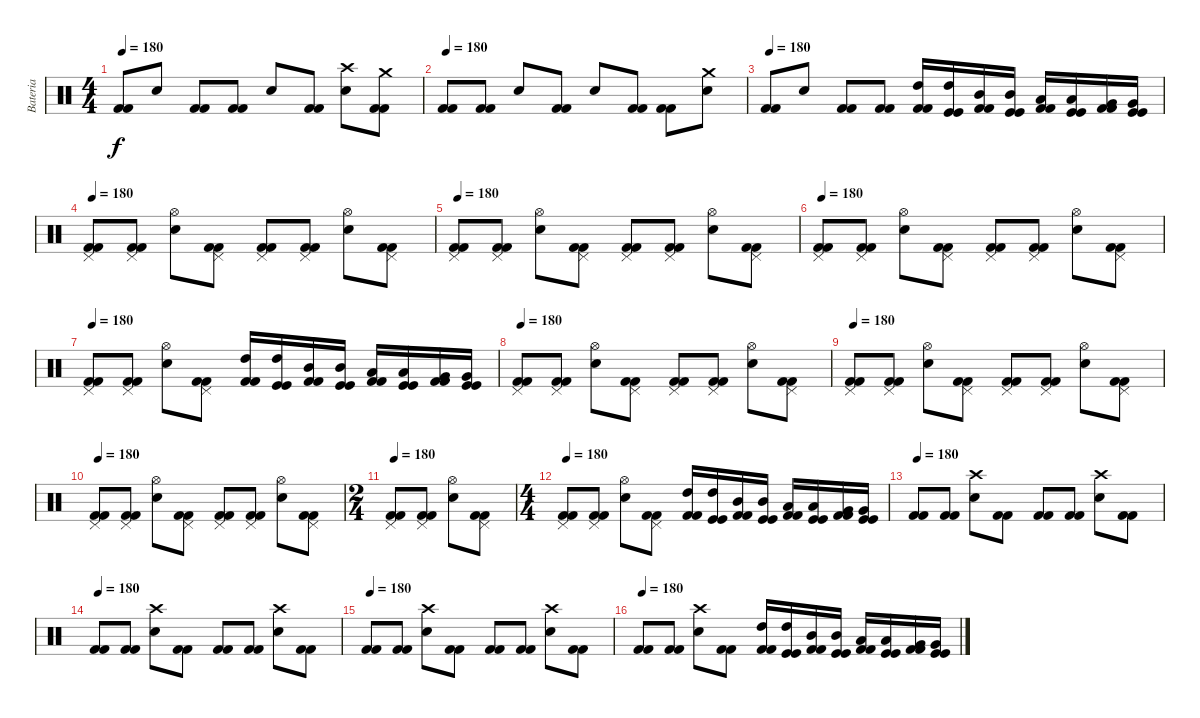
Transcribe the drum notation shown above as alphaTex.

\track ("Bateria" "Bateria") {instrument percussion}
\staff {score}
\articulation defaults
\ts (4 4)
\tempo 180
\clef neutral
\ks c
("Kick (hit) 2" "Kick (hit) 2").8{dy f} "Snare (hit) 2".8 ("Kick (hit) 2" "Kick (hit) 2").8 ("Kick (hit) 2" "Kick (hit) 2").8 "Snare (hit) 2".8 ("Kick (hit) 2" "Kick (hit) 2").8 ("Snare (hit) 2" "Crash high (hit)").8 ("Kick (hit) 2" "Kick (hit) 2" "Crash medium (hit)").8 |
\tempo 180
("Kick (hit) 2" "Kick (hit) 2").8 ("Kick (hit) 2" "Kick (hit) 2").8 "Snare (hit) 2".8 ("Kick (hit) 2" "Kick (hit) 2").8 "Snare (hit) 2".8 ("Kick (hit) 2" "Kick (hit) 2").8 ("Kick (hit) 2" "Kick (hit) 2").8 ("Snare (hit) 2" "Crash medium (hit)").8 |
\tempo 180
("Kick (hit) 2" "Kick (hit) 2").8 "Snare (hit) 2".8 ("Kick (hit) 2" "Kick (hit) 2").8 ("Kick (hit) 2" "Kick (hit) 2").8 ("Kick (hit) 2" "Kick (hit) 2" "High Tom (hit)").16 ("Kick (hit)" "Kick (hit)" "High Tom (hit)").16 ("Kick (hit) 2" "Kick (hit) 2" "Mid Tom (hit)").16 ("Kick (hit)" "Kick (hit)" "Mid Tom (hit)").16 ("Kick (hit) 2" "Kick (hit) 2" "Low Tom (hit)").16 ("Kick (hit)" "Kick (hit)" "Low Tom (hit)").16 ("Kick (hit) 2" "Kick (hit) 2" "Very Low Tom (hit)").16 ("Kick (hit)" "Kick (hit)" "Very Low Tom (hit)").16 |
\tempo 180
("Kick (hit) 2" "Kick (hit) 2" "Pedal Hi-Hat (hit)").8 ("Kick (hit) 2" "Kick (hit) 2" "Pedal Hi-Hat (hit)").8 ("Snare (hit) 2" "Hi-Hat (open)").8 ("Kick (hit) 2" "Kick (hit) 2" "Pedal Hi-Hat (hit)").8 ("Kick (hit) 2" "Kick (hit) 2" "Pedal Hi-Hat (hit)").8 ("Kick (hit) 2" "Kick (hit) 2" "Pedal Hi-Hat (hit)").8 ("Snare (hit) 2" "Hi-Hat (open)").8 ("Kick (hit) 2" "Kick (hit) 2" "Pedal Hi-Hat (hit)").8 |
\tempo 180
("Kick (hit) 2" "Kick (hit) 2" "Pedal Hi-Hat (hit)").8 ("Kick (hit) 2" "Kick (hit) 2" "Pedal Hi-Hat (hit)").8 ("Snare (hit) 2" "Hi-Hat (open)").8 ("Kick (hit) 2" "Kick (hit) 2" "Pedal Hi-Hat (hit)").8 ("Kick (hit) 2" "Kick (hit) 2" "Pedal Hi-Hat (hit)").8 ("Kick (hit) 2" "Kick (hit) 2" "Pedal Hi-Hat (hit)").8 ("Snare (hit) 2" "Hi-Hat (open)").8 ("Kick (hit) 2" "Kick (hit) 2" "Pedal Hi-Hat (hit)").8 |
\tempo 180
("Kick (hit) 2" "Kick (hit) 2" "Pedal Hi-Hat (hit)").8 ("Kick (hit) 2" "Kick (hit) 2" "Pedal Hi-Hat (hit)").8 ("Snare (hit) 2" "Hi-Hat (open)").8 ("Kick (hit) 2" "Kick (hit) 2" "Pedal Hi-Hat (hit)").8 ("Kick (hit) 2" "Kick (hit) 2" "Pedal Hi-Hat (hit)").8 ("Kick (hit) 2" "Kick (hit) 2" "Pedal Hi-Hat (hit)").8 ("Snare (hit) 2" "Hi-Hat (open)").8 ("Kick (hit) 2" "Kick (hit) 2" "Pedal Hi-Hat (hit)").8 |
\tempo 180
("Kick (hit) 2" "Kick (hit) 2" "Pedal Hi-Hat (hit)").8 ("Kick (hit) 2" "Kick (hit) 2" "Pedal Hi-Hat (hit)").8 ("Snare (hit) 2" "Hi-Hat (open)").8 ("Kick (hit) 2" "Kick (hit) 2" "Pedal Hi-Hat (hit)").8 ("Kick (hit) 2" "Kick (hit) 2" "High Tom (hit)").16 ("Kick (hit)" "Kick (hit)" "High Tom (hit)").16 ("Kick (hit) 2" "Kick (hit) 2" "Mid Tom (hit)").16 ("Kick (hit)" "Kick (hit)" "Mid Tom (hit)").16 ("Kick (hit) 2" "Kick (hit) 2" "Low Tom (hit)").16 ("Kick (hit)" "Kick (hit)" "Low Tom (hit)").16 ("Kick (hit) 2" "Kick (hit) 2" "Very Low Tom (hit)").16 ("Kick (hit)" "Kick (hit)" "Very Low Tom (hit)").16 |
\tempo 180
("Kick (hit) 2" "Kick (hit) 2" "Pedal Hi-Hat (hit)").8 ("Kick (hit) 2" "Kick (hit) 2" "Pedal Hi-Hat (hit)").8 ("Snare (hit) 2" "Hi-Hat (open)").8 ("Kick (hit) 2" "Kick (hit) 2" "Pedal Hi-Hat (hit)").8 ("Kick (hit) 2" "Kick (hit) 2" "Pedal Hi-Hat (hit)").8 ("Kick (hit) 2" "Kick (hit) 2" "Pedal Hi-Hat (hit)").8 ("Snare (hit) 2" "Hi-Hat (open)").8 ("Kick (hit) 2" "Kick (hit) 2" "Pedal Hi-Hat (hit)").8 |
\tempo 180
("Kick (hit) 2" "Kick (hit) 2" "Pedal Hi-Hat (hit)").8 ("Kick (hit) 2" "Kick (hit) 2" "Pedal Hi-Hat (hit)").8 ("Snare (hit) 2" "Hi-Hat (open)").8 ("Kick (hit) 2" "Kick (hit) 2" "Pedal Hi-Hat (hit)").8 ("Kick (hit) 2" "Kick (hit) 2" "Pedal Hi-Hat (hit)").8 ("Kick (hit) 2" "Kick (hit) 2" "Pedal Hi-Hat (hit)").8 ("Snare (hit) 2" "Hi-Hat (open)").8 ("Kick (hit) 2" "Kick (hit) 2" "Pedal Hi-Hat (hit)").8 |
\tempo 180
("Kick (hit) 2" "Kick (hit) 2" "Pedal Hi-Hat (hit)").8 ("Kick (hit) 2" "Kick (hit) 2" "Pedal Hi-Hat (hit)").8 ("Snare (hit) 2" "Hi-Hat (open)").8 ("Kick (hit) 2" "Kick (hit) 2" "Pedal Hi-Hat (hit)").8 ("Kick (hit) 2" "Kick (hit) 2" "Pedal Hi-Hat (hit)").8 ("Kick (hit) 2" "Kick (hit) 2" "Pedal Hi-Hat (hit)").8 ("Snare (hit) 2" "Hi-Hat (open)").8 ("Kick (hit) 2" "Kick (hit) 2" "Pedal Hi-Hat (hit)").8 |
\ts (2 4)
\tempo 180
("Kick (hit) 2" "Kick (hit) 2" "Pedal Hi-Hat (hit)").8 ("Kick (hit) 2" "Kick (hit) 2" "Pedal Hi-Hat (hit)").8 ("Snare (hit) 2" "Hi-Hat (open)").8 ("Kick (hit) 2" "Kick (hit) 2" "Pedal Hi-Hat (hit)").8 |
\ts (4 4)
\tempo 180
("Kick (hit) 2" "Kick (hit) 2" "Pedal Hi-Hat (hit)").8 ("Kick (hit) 2" "Kick (hit) 2" "Pedal Hi-Hat (hit)").8 ("Snare (hit) 2" "Hi-Hat (open)").8 ("Kick (hit) 2" "Kick (hit) 2" "Pedal Hi-Hat (hit)").8 ("Kick (hit) 2" "Kick (hit) 2" "High Tom (hit)").16 ("Kick (hit)" "Kick (hit)" "High Tom (hit)").16 ("Kick (hit) 2" "Kick (hit) 2" "Mid Tom (hit)").16 ("Kick (hit)" "Kick (hit)" "Mid Tom (hit)").16 ("Kick (hit) 2" "Kick (hit) 2" "Low Tom (hit)").16 ("Kick (hit)" "Kick (hit)" "Low Tom (hit)").16 ("Kick (hit) 2" "Kick (hit) 2" "Very Low Tom (hit)").16 ("Kick (hit)" "Kick (hit)" "Very Low Tom (hit)").16 |
\tempo 180
("Kick (hit) 2" "Kick (hit) 2").8 ("Kick (hit) 2" "Kick (hit) 2").8 ("Snare (hit) 2" "Crash high (hit)").8 ("Kick (hit) 2" "Kick (hit) 2").8 ("Kick (hit) 2" "Kick (hit) 2").8 ("Kick (hit) 2" "Kick (hit) 2").8 ("Snare (hit) 2" "Crash high (hit)").8 ("Kick (hit) 2" "Kick (hit) 2").8 |
\tempo 180
("Kick (hit) 2" "Kick (hit) 2").8 ("Kick (hit) 2" "Kick (hit) 2").8 ("Snare (hit) 2" "Crash high (hit)").8 ("Kick (hit) 2" "Kick (hit) 2").8 ("Kick (hit) 2" "Kick (hit) 2").8 ("Kick (hit) 2" "Kick (hit) 2").8 ("Snare (hit) 2" "Crash high (hit)").8 ("Kick (hit) 2" "Kick (hit) 2").8 |
\tempo 180
("Kick (hit) 2" "Kick (hit) 2").8 ("Kick (hit) 2" "Kick (hit) 2").8 ("Snare (hit) 2" "Crash high (hit)").8 ("Kick (hit) 2" "Kick (hit) 2").8 ("Kick (hit) 2" "Kick (hit) 2").8 ("Kick (hit) 2" "Kick (hit) 2").8 ("Snare (hit) 2" "Crash high (hit)").8 ("Kick (hit) 2" "Kick (hit) 2").8 |
\tempo 180
("Kick (hit) 2" "Kick (hit) 2").8 ("Kick (hit) 2" "Kick (hit) 2").8 ("Snare (hit) 2" "Crash high (hit)").8 ("Kick (hit) 2" "Kick (hit) 2").8 ("Kick (hit) 2" "Kick (hit) 2" "High Tom (hit)").16 ("Kick (hit)" "Kick (hit)" "High Tom (hit)").16 ("Kick (hit) 2" "Kick (hit) 2" "Mid Tom (hit)").16 ("Kick (hit)" "Kick (hit)" "Mid Tom (hit)").16 ("Kick (hit) 2" "Kick (hit) 2" "Low Tom (hit)").16 ("Kick (hit)" "Kick (hit)" "Low Tom (hit)").16 ("Kick (hit) 2" "Kick (hit) 2" "Very Low Tom (hit)").16 ("Kick (hit)" "Kick (hit)" "Very Low Tom (hit)").16
